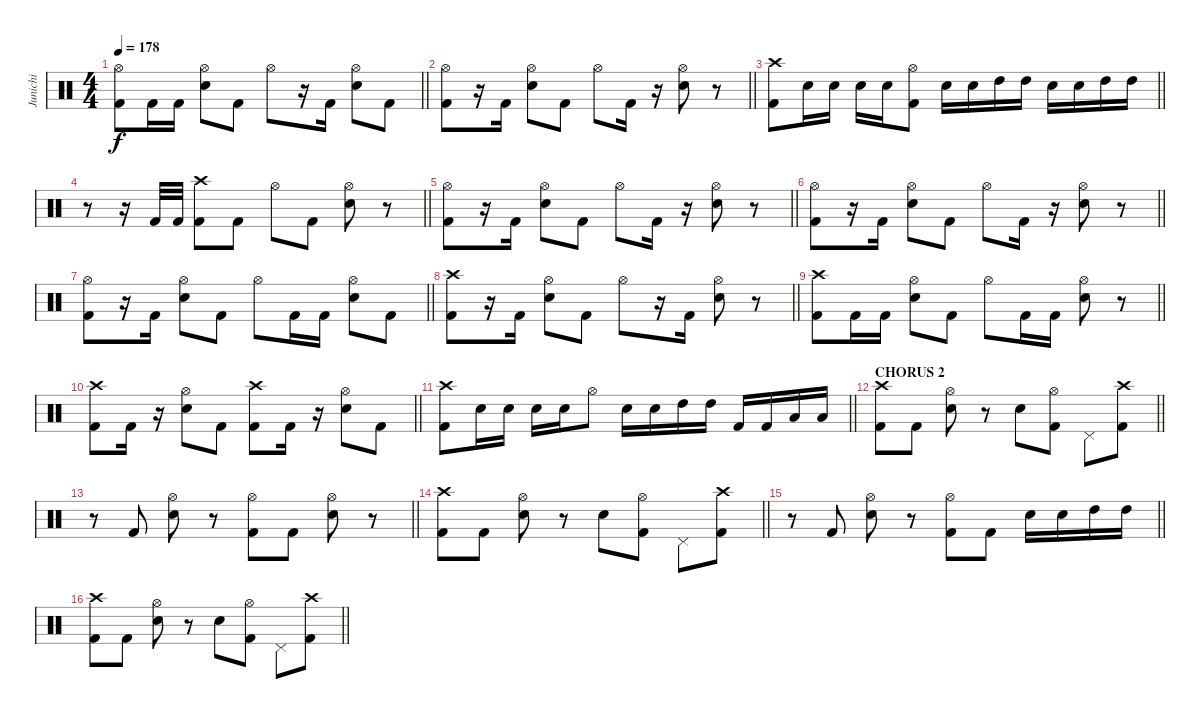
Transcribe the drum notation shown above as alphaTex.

\track ("Junichi" "Junichi") {instrument percussion}
\staff {score}
\articulation defaults
\ts (4 4)
\tempo 178
\clef neutral
\barLineRight lightlight
\ks c
("Hi-Hat (open)" "Kick (hit) 2").8{dy f} "Kick (hit) 2".16 "Kick (hit) 2".16 ("Hi-Hat (open)" "Snare (hit) 2").8 "Kick (hit) 2".8 "Hi-Hat (open)".8 r.16 "Kick (hit) 2".16 ("Hi-Hat (open)" "Snare (hit) 2").8 "Kick (hit) 2".8 |
\barLineRight lightlight
("Hi-Hat (open)" "Kick (hit) 2").8 r.16 "Kick (hit) 2".16 ("Hi-Hat (open)" "Snare (hit) 2").8 "Kick (hit) 2".8 "Hi-Hat (open)".8 "Kick (hit) 2".16 r.16 ("Hi-Hat (open)" "Snare (hit) 2").8 r.8 |
\barLineRight lightlight
("Crash high (hit)" "Kick (hit) 2").8 "Snare (hit) 2".16 "Snare (hit) 2".16 "Snare (hit) 2".16 "Snare (hit) 2".16 ("Hi-Hat (open)" "Kick (hit) 2").8 "Snare (hit) 2".16 "Snare (hit) 2".16 "High Tom (hit)".16 "High Tom (hit)".16 "Snare (hit) 2".16 "Snare (hit) 2".16 "High Tom (hit)".16 "High Tom (hit)".16 |
\barLineRight lightlight
r.8 r.16 "Kick (hit) 2".32 "Kick (hit) 2".32 ("Crash high (hit)" "Kick (hit) 2").8 "Kick (hit) 2".8 "Hi-Hat (open)".8 "Kick (hit) 2".8 ("Hi-Hat (open)" "Snare (hit) 2").8 r.8 |
\barLineRight lightlight
("Hi-Hat (open)" "Kick (hit) 2").8 r.16 "Kick (hit) 2".16 ("Hi-Hat (open)" "Snare (hit) 2").8 "Kick (hit) 2".8 "Hi-Hat (open)".8 "Kick (hit) 2".16 r.16 ("Hi-Hat (open)" "Snare (hit) 2").8 r.8 |
\barLineRight lightlight
("Hi-Hat (open)" "Kick (hit) 2").8 r.16 "Kick (hit) 2".16 ("Hi-Hat (open)" "Snare (hit) 2").8 "Kick (hit) 2".8 "Hi-Hat (open)".8 "Kick (hit) 2".16 r.16 ("Hi-Hat (open)" "Snare (hit) 2").8 r.8 |
\barLineRight lightlight
("Hi-Hat (open)" "Kick (hit) 2").8 r.16 "Kick (hit) 2".16 ("Hi-Hat (open)" "Snare (hit) 2").8 "Kick (hit) 2".8 "Hi-Hat (open)".8 "Kick (hit) 2".16 "Kick (hit) 2".16 ("Hi-Hat (open)" "Snare (hit) 2").8 "Kick (hit) 2".8 |
\barLineRight lightlight
("Crash high (hit)" "Kick (hit) 2").8 r.16 "Kick (hit) 2".16 ("Hi-Hat (open)" "Snare (hit) 2").8 "Kick (hit) 2".8 "Hi-Hat (open)".8 r.16 "Kick (hit) 2".16 ("Hi-Hat (open)" "Snare (hit) 2").8 r.8 |
\barLineRight lightlight
("Crash high (hit)" "Kick (hit) 2").8 "Kick (hit) 2".16 "Kick (hit) 2".16 ("Hi-Hat (open)" "Snare (hit) 2").8 "Kick (hit) 2".8 "Hi-Hat (open)".8 "Kick (hit) 2".16 "Kick (hit) 2".16 ("Hi-Hat (open)" "Snare (hit) 2").8 r.8 |
\barLineRight lightlight
("Crash high (hit)" "Kick (hit) 2").8 "Kick (hit) 2".16 r.16 ("Hi-Hat (open)" "Snare (hit) 2").8 "Kick (hit) 2".8 ("Crash high (hit)" "Kick (hit) 2").8 "Kick (hit) 2".16 r.16 ("Hi-Hat (open)" "Snare (hit) 2").8 "Kick (hit) 2".8 |
\barLineRight lightlight
("Crash high (hit)" "Kick (hit) 2").8 "Snare (hit) 2".16 "Snare (hit) 2".16 "Snare (hit) 2".16 "Snare (hit) 2".16 "Hi-Hat (open)".8 "Snare (hit) 2".16 "Snare (hit) 2".16 "High Tom (hit)".16 "High Tom (hit)".16 "Kick (hit) 2".16 "Kick (hit) 2".16 "Low Tom (hit)".16 "Low Tom (hit)".16 |
\section ("" "CHORUS 2")
\barLineRight lightlight
("Crash high (hit)" "Kick (hit) 2").8 "Kick (hit) 2".8 ("Hi-Hat (open)" "Snare (hit) 2").8 r.8 "Snare (hit) 2".8 ("Hi-Hat (open)" "Kick (hit) 2").8 "Pedal Hi-Hat (hit)".8 ("Crash high (hit)" "Kick (hit) 2").8 |
\barLineRight lightlight
r.8 "Kick (hit) 2".8 ("Hi-Hat (open)" "Snare (hit) 2").8 r.8 ("Hi-Hat (open)" "Kick (hit) 2").8 "Kick (hit) 2".8 ("Hi-Hat (open)" "Snare (hit) 2").8 r.8 |
\barLineRight lightlight
("Crash high (hit)" "Kick (hit) 2").8 "Kick (hit) 2".8 ("Hi-Hat (open)" "Snare (hit) 2").8 r.8 "Snare (hit) 2".8 ("Hi-Hat (open)" "Kick (hit) 2").8 "Pedal Hi-Hat (hit)".8 ("Crash high (hit)" "Kick (hit) 2").8 |
\barLineRight lightlight
r.8 "Kick (hit) 2".8 ("Hi-Hat (open)" "Snare (hit) 2").8 r.8 ("Hi-Hat (open)" "Kick (hit) 2").8 "Kick (hit) 2".8 "Snare (hit) 2".16 "Snare (hit) 2".16 "High Tom (hit)".16 "High Tom (hit)".16 |
\barLineRight lightlight
("Crash high (hit)" "Kick (hit) 2").8 "Kick (hit) 2".8 ("Hi-Hat (open)" "Snare (hit) 2").8 r.8 "Snare (hit) 2".8 ("Hi-Hat (open)" "Kick (hit) 2").8 "Pedal Hi-Hat (hit)".8 ("Crash high (hit)" "Kick (hit) 2").8
